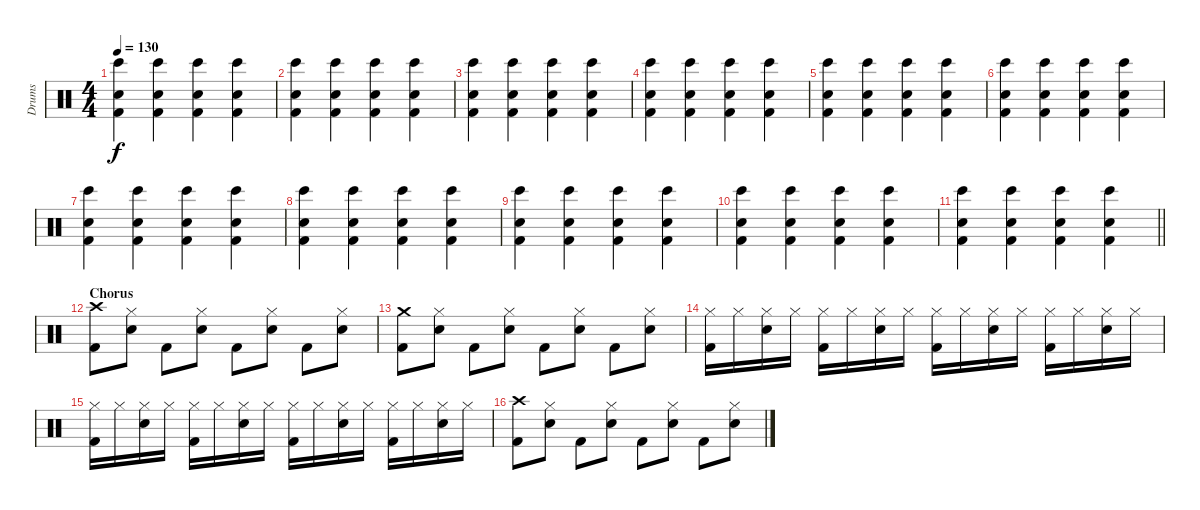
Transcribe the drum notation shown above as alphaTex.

\track ("Drums" "Drums") {instrument percussion}
\staff {score}
\articulation defaults
\ts (4 4)
\tempo 130
\clef neutral
\ks c
("Electric Snare (hit)" "Kick (hit) 2" "Bongo High (hit)").4{dy f} ("Electric Snare (hit)" "Kick (hit) 2" "Bongo High (hit)").4 ("Electric Snare (hit)" "Kick (hit) 2" "Bongo High (hit)").4 ("Electric Snare (hit)" "Kick (hit) 2" "Bongo High (hit)").4 |
("Electric Snare (hit)" "Kick (hit) 2" "Bongo High (hit)").4 ("Electric Snare (hit)" "Kick (hit) 2" "Bongo High (hit)").4 ("Electric Snare (hit)" "Kick (hit) 2" "Bongo High (hit)").4 ("Electric Snare (hit)" "Kick (hit) 2" "Bongo High (hit)").4 |
("Electric Snare (hit)" "Kick (hit) 2" "Bongo High (hit)").4 ("Electric Snare (hit)" "Kick (hit) 2" "Bongo High (hit)").4 ("Electric Snare (hit)" "Kick (hit) 2" "Bongo High (hit)").4 ("Electric Snare (hit)" "Kick (hit) 2" "Bongo High (hit)").4 |
("Electric Snare (hit)" "Kick (hit) 2" "Bongo High (hit)").4 ("Electric Snare (hit)" "Kick (hit) 2" "Bongo High (hit)").4 ("Electric Snare (hit)" "Kick (hit) 2" "Bongo High (hit)").4 ("Electric Snare (hit)" "Kick (hit) 2" "Bongo High (hit)").4 |
("Electric Snare (hit)" "Kick (hit) 2" "Bongo High (hit)").4 ("Electric Snare (hit)" "Kick (hit) 2" "Bongo High (hit)").4 ("Electric Snare (hit)" "Kick (hit) 2" "Bongo High (hit)").4 ("Electric Snare (hit)" "Kick (hit) 2" "Bongo High (hit)").4 |
("Electric Snare (hit)" "Kick (hit) 2" "Bongo High (hit)").4 ("Electric Snare (hit)" "Kick (hit) 2" "Bongo High (hit)").4 ("Electric Snare (hit)" "Kick (hit) 2" "Bongo High (hit)").4 ("Electric Snare (hit)" "Kick (hit) 2" "Bongo High (hit)").4 |
("Electric Snare (hit)" "Kick (hit) 2" "Bongo High (hit)").4 ("Electric Snare (hit)" "Kick (hit) 2" "Bongo High (hit)").4 ("Electric Snare (hit)" "Kick (hit) 2" "Bongo High (hit)").4 ("Electric Snare (hit)" "Kick (hit) 2" "Bongo High (hit)").4 |
("Electric Snare (hit)" "Kick (hit) 2" "Bongo High (hit)").4 ("Electric Snare (hit)" "Kick (hit) 2" "Bongo High (hit)").4 ("Electric Snare (hit)" "Kick (hit) 2" "Bongo High (hit)").4 ("Electric Snare (hit)" "Kick (hit) 2" "Bongo High (hit)").4 |
("Electric Snare (hit)" "Kick (hit) 2" "Bongo High (hit)").4 ("Electric Snare (hit)" "Kick (hit) 2" "Bongo High (hit)").4 ("Electric Snare (hit)" "Kick (hit) 2" "Bongo High (hit)").4 ("Electric Snare (hit)" "Kick (hit) 2" "Bongo High (hit)").4 |
("Electric Snare (hit)" "Kick (hit) 2" "Bongo High (hit)").4 ("Electric Snare (hit)" "Kick (hit) 2" "Bongo High (hit)").4 ("Electric Snare (hit)" "Kick (hit) 2" "Bongo High (hit)").4 ("Electric Snare (hit)" "Kick (hit) 2" "Bongo High (hit)").4 |
\barLineRight lightlight
("Electric Snare (hit)" "Kick (hit) 2" "Bongo High (hit)").4 ("Electric Snare (hit)" "Kick (hit) 2" "Bongo High (hit)").4 ("Electric Snare (hit)" "Kick (hit) 2" "Bongo High (hit)").4 ("Electric Snare (hit)" "Kick (hit) 2" "Bongo High (hit)").4 |
\section ("" "Chorus")
("Crash high (hit)" "Kick (hit) 2").8 ("Electric Snare (hit)" "Hi-Hat (closed)").8 "Kick (hit) 2".8 ("Electric Snare (hit)" "Hi-Hat (closed)").8 "Kick (hit) 2".8 ("Electric Snare (hit)" "Hi-Hat (closed)").8 "Kick (hit) 2".8 ("Electric Snare (hit)" "Hi-Hat (closed)").8 |
("Crash medium (hit)" "Kick (hit) 2").8 ("Electric Snare (hit)" "Hi-Hat (closed)").8 "Kick (hit) 2".8 ("Electric Snare (hit)" "Hi-Hat (closed)").8 "Kick (hit) 2".8 ("Electric Snare (hit)" "Hi-Hat (closed)").8 "Kick (hit) 2".8 ("Electric Snare (hit)" "Hi-Hat (closed)").8 |
("Hi-Hat (closed)" "Kick (hit) 2").16 "Hi-Hat (closed)".16 ("Hi-Hat (closed)" "Electric Snare (hit)").16 "Hi-Hat (closed)".16 ("Hi-Hat (closed)" "Kick (hit) 2").16 "Hi-Hat (closed)".16 ("Hi-Hat (closed)" "Electric Snare (hit)").16 "Hi-Hat (closed)".16 ("Hi-Hat (closed)" "Kick (hit) 2").16 "Hi-Hat (closed)".16 ("Hi-Hat (closed)" "Electric Snare (hit)").16 "Hi-Hat (closed)".16 ("Hi-Hat (closed)" "Kick (hit) 2").16 "Hi-Hat (closed)".16 ("Hi-Hat (closed)" "Electric Snare (hit)").16 "Hi-Hat (closed)".16 |
("Hi-Hat (closed)" "Kick (hit) 2").16 "Hi-Hat (closed)".16 ("Hi-Hat (closed)" "Electric Snare (hit)").16 "Hi-Hat (closed)".16 ("Hi-Hat (closed)" "Kick (hit) 2").16 "Hi-Hat (closed)".16 ("Hi-Hat (closed)" "Electric Snare (hit)").16 "Hi-Hat (closed)".16 ("Hi-Hat (closed)" "Kick (hit) 2").16 "Hi-Hat (closed)".16 ("Hi-Hat (closed)" "Electric Snare (hit)").16 "Hi-Hat (closed)".16 ("Hi-Hat (closed)" "Kick (hit) 2").16 "Hi-Hat (closed)".16 ("Hi-Hat (closed)" "Electric Snare (hit)").16 "Hi-Hat (closed)".16 |
("Crash high (hit)" "Kick (hit) 2").8 ("Electric Snare (hit)" "Hi-Hat (closed)").8 "Kick (hit) 2".8 ("Electric Snare (hit)" "Hi-Hat (closed)").8 "Kick (hit) 2".8 ("Electric Snare (hit)" "Hi-Hat (closed)").8 "Kick (hit) 2".8 ("Electric Snare (hit)" "Hi-Hat (closed)").8
